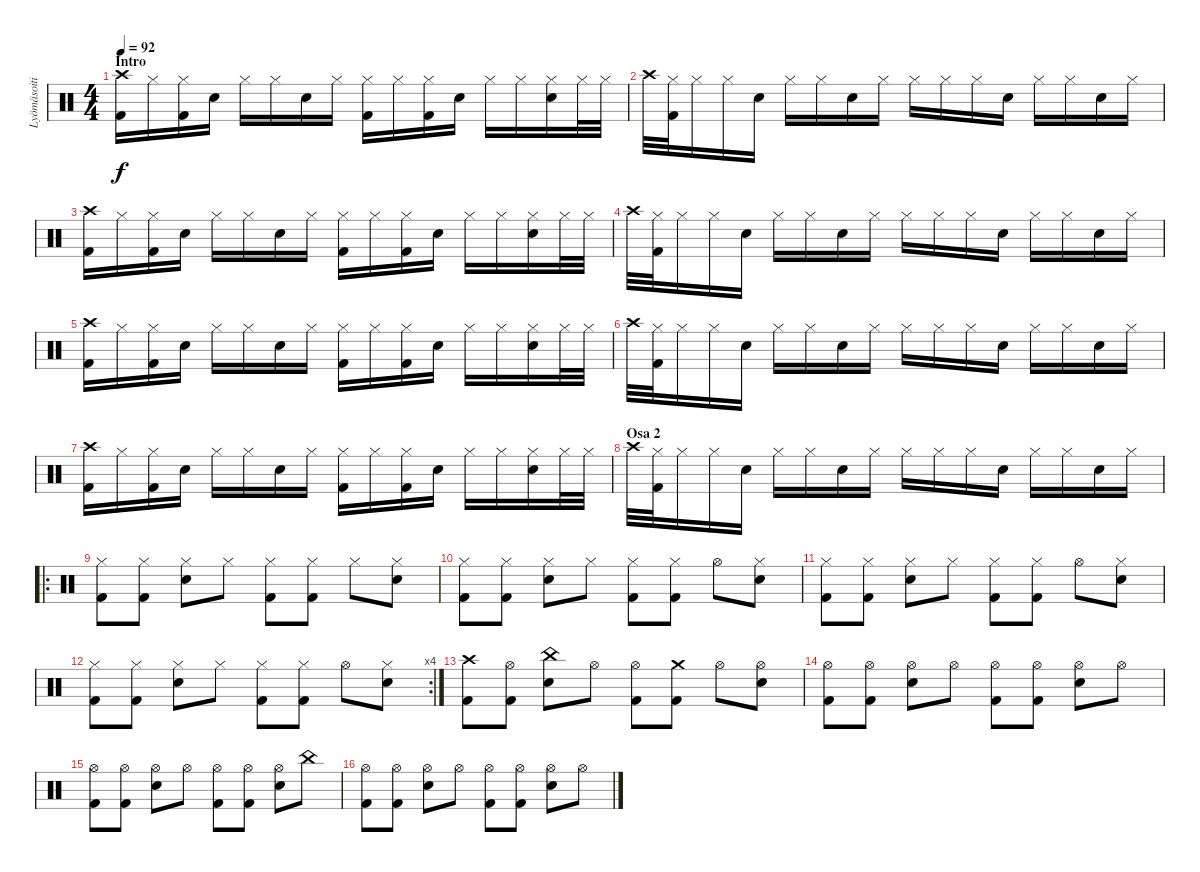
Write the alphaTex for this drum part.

\track ("Lyömäsoitin" "Lyömäsoiti") {instrument percussion}
\staff {score}
\articulation defaults
\ts (4 4)
\section ("" "Intro")
\tempo 92
\clef neutral
\ks c
("Crash high (hit)" "Kick (hit) 2").16{dy f} "Hi-Hat (closed)".16 ("Hi-Hat (closed)" "Kick (hit) 2").16 "Snare (hit) 2".16 "Hi-Hat (closed)".16 "Hi-Hat (closed)".16 "Snare (hit) 2".16 "Hi-Hat (closed)".16 ("Hi-Hat (closed)" "Kick (hit) 2").16 "Hi-Hat (closed)".16 ("Hi-Hat (closed)" "Kick (hit) 2").16 "Snare (hit) 2".16 "Hi-Hat (closed)".16 "Hi-Hat (closed)".16 ("Hi-Hat (closed)" "Snare (hit) 2").16 "Hi-Hat (closed)".32 "Hi-Hat (closed)".32 |
"Crash high (hit)".32 ("Hi-Hat (closed)" "Kick (hit) 2").32 "Hi-Hat (closed)".16 "Hi-Hat (closed)".16 "Snare (hit) 2".16 "Hi-Hat (closed)".16 "Hi-Hat (closed)".16 "Snare (hit) 2".16 "Hi-Hat (closed)".16 "Hi-Hat (closed)".16 "Hi-Hat (closed)".16 "Hi-Hat (closed)".16 "Snare (hit) 2".16 "Hi-Hat (closed)".16 "Hi-Hat (closed)".16 "Snare (hit) 2".16 "Hi-Hat (closed)".16 |
("Crash high (hit)" "Kick (hit) 2").16 "Hi-Hat (closed)".16 ("Hi-Hat (closed)" "Kick (hit) 2").16 "Snare (hit) 2".16 "Hi-Hat (closed)".16 "Hi-Hat (closed)".16 "Snare (hit) 2".16 "Hi-Hat (closed)".16 ("Hi-Hat (closed)" "Kick (hit) 2").16 "Hi-Hat (closed)".16 ("Hi-Hat (closed)" "Kick (hit) 2").16 "Snare (hit) 2".16 "Hi-Hat (closed)".16 "Hi-Hat (closed)".16 ("Hi-Hat (closed)" "Snare (hit) 2").16 "Hi-Hat (closed)".32 "Hi-Hat (closed)".32 |
"Crash high (hit)".32 ("Hi-Hat (closed)" "Kick (hit) 2").32 "Hi-Hat (closed)".16 "Hi-Hat (closed)".16 "Snare (hit) 2".16 "Hi-Hat (closed)".16 "Hi-Hat (closed)".16 "Snare (hit) 2".16 "Hi-Hat (closed)".16 "Hi-Hat (closed)".16 "Hi-Hat (closed)".16 "Hi-Hat (closed)".16 "Snare (hit) 2".16 "Hi-Hat (closed)".16 "Hi-Hat (closed)".16 "Snare (hit) 2".16 "Hi-Hat (closed)".16 |
("Crash high (hit)" "Kick (hit) 2").16 "Hi-Hat (closed)".16 ("Hi-Hat (closed)" "Kick (hit) 2").16 "Snare (hit) 2".16 "Hi-Hat (closed)".16 "Hi-Hat (closed)".16 "Snare (hit) 2".16 "Hi-Hat (closed)".16 ("Hi-Hat (closed)" "Kick (hit) 2").16 "Hi-Hat (closed)".16 ("Hi-Hat (closed)" "Kick (hit) 2").16 "Snare (hit) 2".16 "Hi-Hat (closed)".16 "Hi-Hat (closed)".16 ("Hi-Hat (closed)" "Snare (hit) 2").16 "Hi-Hat (closed)".32 "Hi-Hat (closed)".32 |
"Crash high (hit)".32 ("Hi-Hat (closed)" "Kick (hit) 2").32 "Hi-Hat (closed)".16 "Hi-Hat (closed)".16 "Snare (hit) 2".16 "Hi-Hat (closed)".16 "Hi-Hat (closed)".16 "Snare (hit) 2".16 "Hi-Hat (closed)".16 "Hi-Hat (closed)".16 "Hi-Hat (closed)".16 "Hi-Hat (closed)".16 "Snare (hit) 2".16 "Hi-Hat (closed)".16 "Hi-Hat (closed)".16 "Snare (hit) 2".16 "Hi-Hat (closed)".16 |
("Crash high (hit)" "Kick (hit) 2").16 "Hi-Hat (closed)".16 ("Hi-Hat (closed)" "Kick (hit) 2").16 "Snare (hit) 2".16 "Hi-Hat (closed)".16 "Hi-Hat (closed)".16 "Snare (hit) 2".16 "Hi-Hat (closed)".16 ("Hi-Hat (closed)" "Kick (hit) 2").16 "Hi-Hat (closed)".16 ("Hi-Hat (closed)" "Kick (hit) 2").16 "Snare (hit) 2".16 "Hi-Hat (closed)".16 "Hi-Hat (closed)".16 ("Hi-Hat (closed)" "Snare (hit) 2").16 "Hi-Hat (closed)".32 "Hi-Hat (closed)".32 |
\section ("" "Osa 2")
"Crash high (hit)".32 ("Hi-Hat (closed)" "Kick (hit) 2").32 "Hi-Hat (closed)".16 "Hi-Hat (closed)".16 "Snare (hit) 2".16 "Hi-Hat (closed)".16 "Hi-Hat (closed)".16 "Snare (hit) 2".16 "Hi-Hat (closed)".16 "Hi-Hat (closed)".16 "Hi-Hat (closed)".16 "Hi-Hat (closed)".16 "Snare (hit) 2".16 "Hi-Hat (closed)".16 "Hi-Hat (closed)".16 "Snare (hit) 2".16 "Hi-Hat (closed)".16 |
\ro
("Hi-Hat (closed)" "Kick (hit) 2").8 ("Hi-Hat (closed)" "Kick (hit) 2").8 ("Hi-Hat (closed)" "Snare (hit) 2").8 "Hi-Hat (closed)".8 ("Hi-Hat (closed)" "Kick (hit) 2").8 ("Hi-Hat (closed)" "Kick (hit) 2").8 "Hi-Hat (closed)".8 ("Hi-Hat (closed)" "Snare (hit) 2").8 |
("Hi-Hat (closed)" "Kick (hit) 2").8 ("Hi-Hat (closed)" "Kick (hit) 2").8 ("Hi-Hat (closed)" "Snare (hit) 2").8 "Hi-Hat (closed)".8 ("Hi-Hat (closed)" "Kick (hit) 2").8 ("Hi-Hat (closed)" "Kick (hit) 2").8 "Hi-Hat (open)".8 ("Hi-Hat (closed)" "Snare (hit) 2").8 |
("Hi-Hat (closed)" "Kick (hit) 2").8 ("Hi-Hat (closed)" "Kick (hit) 2").8 ("Hi-Hat (closed)" "Snare (hit) 2").8 "Hi-Hat (closed)".8 ("Hi-Hat (closed)" "Kick (hit) 2").8 ("Hi-Hat (closed)" "Kick (hit) 2").8 "Hi-Hat (open)".8 ("Hi-Hat (closed)" "Snare (hit) 2").8 |
\rc 4
("Hi-Hat (closed)" "Kick (hit) 2").8 ("Hi-Hat (closed)" "Kick (hit) 2").8 ("Hi-Hat (closed)" "Snare (hit) 2").8 "Hi-Hat (closed)".8 ("Hi-Hat (closed)" "Kick (hit) 2").8 ("Hi-Hat (closed)" "Kick (hit) 2").8 "Hi-Hat (open)".8 ("Hi-Hat (closed)" "Snare (hit) 2").8 |
("Crash high (hit)" "Kick (hit) 2").8 ("Hi-Hat (open)" "Kick (hit) 2").8 ("China (hit)" "Snare (hit) 2").8 "Hi-Hat (open)".8 ("Hi-Hat (open)" "Kick (hit) 2").8 ("Crash medium (hit)" "Kick (hit) 2").8 "Hi-Hat (open)".8 ("Hi-Hat (open)" "Snare (hit) 2").8 |
("Hi-Hat (open)" "Kick (hit) 2").8 ("Hi-Hat (open)" "Kick (hit) 2").8 ("Hi-Hat (open)" "Snare (hit) 2").8 "Hi-Hat (open)".8 ("Hi-Hat (open)" "Kick (hit) 2").8 ("Hi-Hat (open)" "Kick (hit) 2").8 ("Hi-Hat (open)" "Snare (hit) 2").8 "Hi-Hat (open)".8 |
("Hi-Hat (open)" "Kick (hit) 2").8 ("Hi-Hat (open)" "Kick (hit) 2").8 ("Hi-Hat (open)" "Snare (hit) 2").8 "Hi-Hat (open)".8 ("Hi-Hat (open)" "Kick (hit) 2").8 ("Hi-Hat (open)" "Kick (hit) 2").8 ("Hi-Hat (open)" "Snare (hit) 2").8 "China (hit)".8 |
("Hi-Hat (open)" "Kick (hit) 2").8 ("Hi-Hat (open)" "Kick (hit) 2").8 ("Hi-Hat (open)" "Snare (hit) 2").8 "Hi-Hat (open)".8 ("Hi-Hat (open)" "Kick (hit) 2").8 ("Hi-Hat (open)" "Kick (hit) 2").8 ("Hi-Hat (open)" "Snare (hit) 2").8 "Hi-Hat (open)".8
